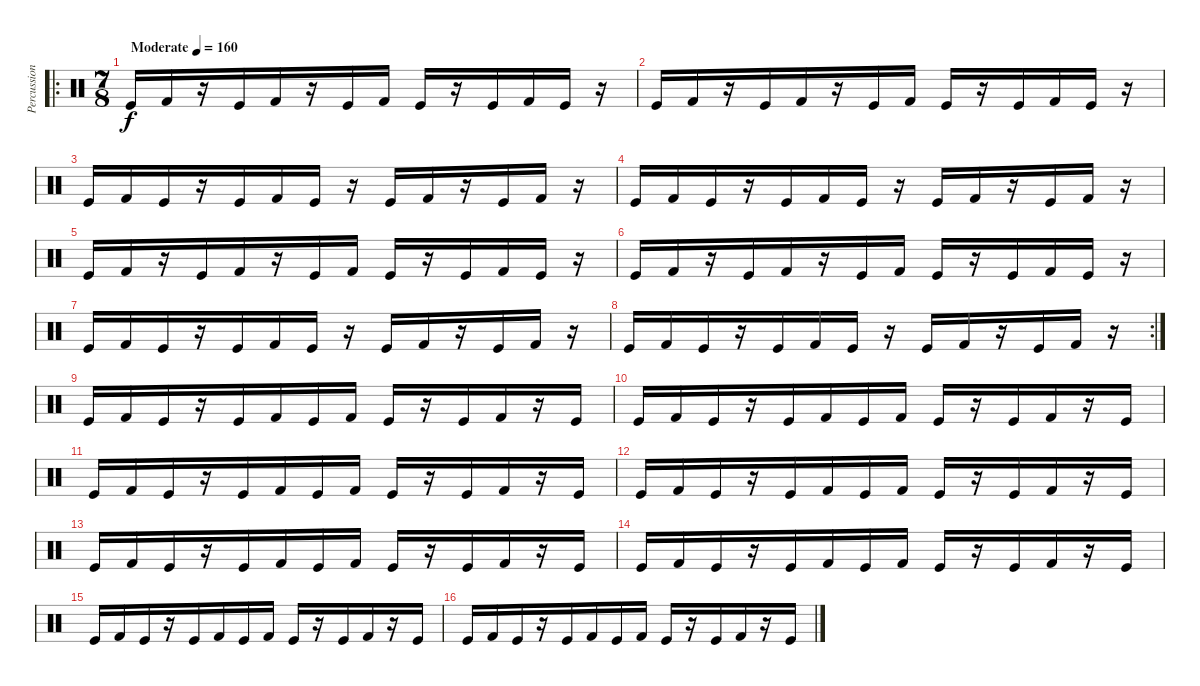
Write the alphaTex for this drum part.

\track ("Percussion" "Percussion") {instrument percussion}
\staff {score}
\articulation defaults
\ro
\ts (7 8)
\tempo (160 "Moderate")
\clef neutral
\ks c "Kick (hit)".16{dy f} "Kick (hit) 2".16
r.16 "Kick (hit)".16 "Kick (hit) 2".16 r.16 "Kick (hit)".16 "Kick (hit) 2".16 "Kick (hit)".16 r.16 "Kick (hit)".16 "Kick (hit) 2".16 "Kick (hit)".16 r.16 |
"Kick (hit)".16 "Kick (hit) 2".16 r.16 "Kick (hit)".16 "Kick (hit) 2".16 r.16 "Kick (hit)".16 "Kick (hit) 2".16 "Kick (hit)".16 r.16 "Kick (hit)".16 "Kick (hit) 2".16 "Kick (hit)".16 r.16 |
"Kick (hit)".16 "Kick (hit) 2".16 "Kick (hit)".16 r.16 "Kick (hit)".16 "Kick (hit) 2".16 "Kick (hit)".16 r.16 "Kick (hit)".16 "Kick (hit) 2".16 r.16 "Kick (hit)".16 "Kick (hit) 2".16 r.16 |
"Kick (hit)".16 "Kick (hit) 2".16 "Kick (hit)".16 r.16 "Kick (hit)".16 "Kick (hit) 2".16 "Kick (hit)".16 r.16 "Kick (hit)".16 "Kick (hit) 2".16 r.16 "Kick (hit)".16 "Kick (hit) 2".16 r.16 |
"Kick (hit)".16 "Kick (hit) 2".16 r.16 "Kick (hit)".16 "Kick (hit) 2".16 r.16 "Kick (hit)".16 "Kick (hit) 2".16 "Kick (hit)".16 r.16 "Kick (hit)".16 "Kick (hit) 2".16 "Kick (hit)".16 r.16 |
"Kick (hit)".16 "Kick (hit) 2".16 r.16 "Kick (hit)".16 "Kick (hit) 2".16 r.16 "Kick (hit)".16 "Kick (hit) 2".16 "Kick (hit)".16 r.16 "Kick (hit)".16 "Kick (hit) 2".16 "Kick (hit)".16 r.16 |
"Kick (hit)".16 "Kick (hit) 2".16 "Kick (hit)".16 r.16 "Kick (hit)".16 "Kick (hit) 2".16 "Kick (hit)".16 r.16 "Kick (hit)".16 "Kick (hit) 2".16 r.16 "Kick (hit)".16 "Kick (hit) 2".16 r.16 |
\rc 2 "Kick (hit)".16 "Kick (hit) 2".16 "Kick (hit)".16
r.16 "Kick (hit)".16 "Kick (hit) 2".16 "Kick (hit)".16 r.16 "Kick (hit)".16 "Kick (hit) 2".16 r.16 "Kick (hit)".16 "Kick (hit) 2".16 r.16 |
"Kick (hit)".16 "Kick (hit) 2".16 "Kick (hit)".16 r.16 "Kick (hit)".16 "Kick (hit) 2".16 "Kick (hit)".16 "Kick (hit) 2".16 "Kick (hit)".16 r.16 "Kick (hit)".16 "Kick (hit) 2".16 r.16 "Kick (hit)".16 |
"Kick (hit)".16 "Kick (hit) 2".16 "Kick (hit)".16 r.16 "Kick (hit)".16 "Kick (hit) 2".16 "Kick (hit)".16 "Kick (hit) 2".16 "Kick (hit)".16 r.16 "Kick (hit)".16 "Kick (hit) 2".16 r.16 "Kick (hit)".16 |
"Kick (hit)".16 "Kick (hit) 2".16 "Kick (hit)".16 r.16 "Kick (hit)".16 "Kick (hit) 2".16 "Kick (hit)".16 "Kick (hit) 2".16 "Kick (hit)".16 r.16 "Kick (hit)".16 "Kick (hit) 2".16 r.16 "Kick (hit)".16 |
"Kick (hit)".16 "Kick (hit) 2".16 "Kick (hit)".16 r.16 "Kick (hit)".16 "Kick (hit) 2".16 "Kick (hit)".16 "Kick (hit) 2".16 "Kick (hit)".16 r.16 "Kick (hit)".16 "Kick (hit) 2".16 r.16 "Kick (hit)".16 |
"Kick (hit)".16 "Kick (hit) 2".16 "Kick (hit)".16 r.16 "Kick (hit)".16 "Kick (hit) 2".16 "Kick (hit)".16 "Kick (hit) 2".16 "Kick (hit)".16 r.16 "Kick (hit)".16 "Kick (hit) 2".16 r.16 "Kick (hit)".16 |
"Kick (hit)".16 "Kick (hit) 2".16 "Kick (hit)".16 r.16 "Kick (hit)".16 "Kick (hit) 2".16 "Kick (hit)".16 "Kick (hit) 2".16 "Kick (hit)".16 r.16 "Kick (hit)".16 "Kick (hit) 2".16 r.16 "Kick (hit)".16 |
"Kick (hit)".16 "Kick (hit) 2".16 "Kick (hit)".16 r.16 "Kick (hit)".16 "Kick (hit) 2".16 "Kick (hit)".16 "Kick (hit) 2".16 "Kick (hit)".16 r.16 "Kick (hit)".16 "Kick (hit) 2".16 r.16 "Kick (hit)".16 |
"Kick (hit)".16 "Kick (hit) 2".16 "Kick (hit)".16 r.16 "Kick (hit)".16 "Kick (hit) 2".16 "Kick (hit)".16 "Kick (hit) 2".16 "Kick (hit)".16 r.16 "Kick (hit)".16 "Kick (hit) 2".16 r.16 "Kick (hit)".16
